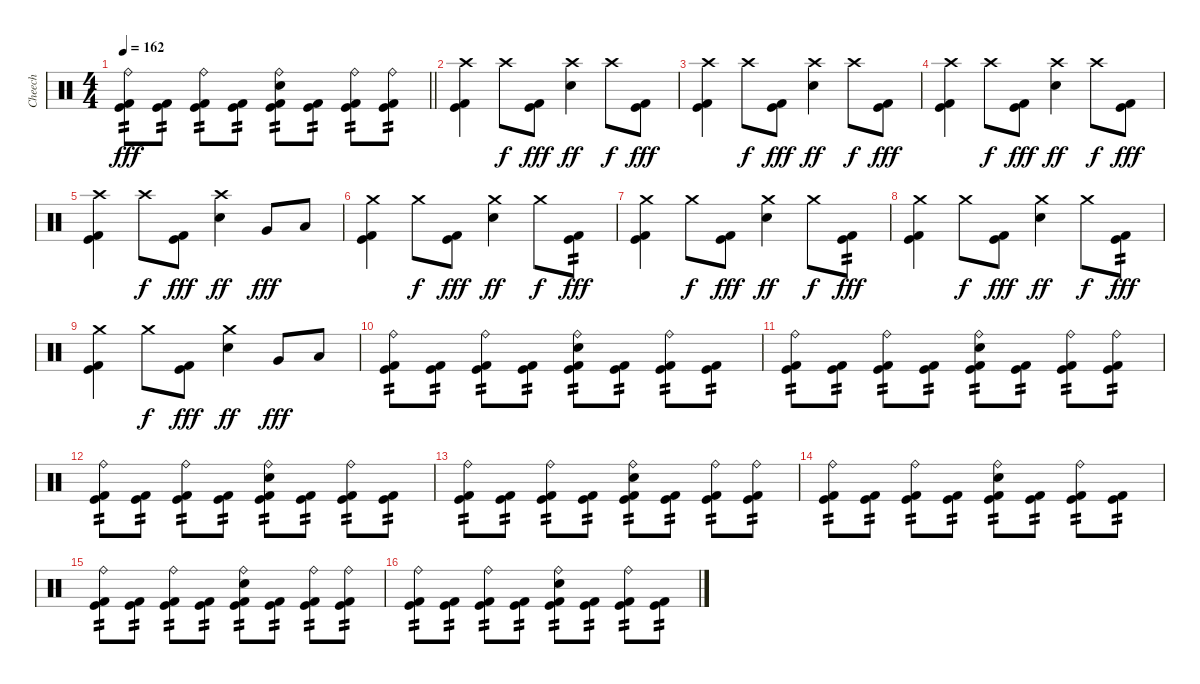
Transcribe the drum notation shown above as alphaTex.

\track ("Cheech" "Cheech") {instrument percussion}
\staff {score}
\articulation defaults
\ts (4 4)
\tempo 162
\clef neutral
\barLineRight lightlight
\ks c
("Ride (bell)" "Kick (hit) 2" "Kick (hit)").8{tp 2 dy fff} ("Kick (hit) 2" "Kick (hit)").8{tp 2} ("Ride (bell)" "Kick (hit) 2" "Kick (hit)").8{tp 2} ("Kick (hit) 2" "Kick (hit)").8{tp 2} ("Ride (bell)" "Electric Snare (hit)" "Kick (hit) 2" "Kick (hit)").8{tp 2} ("Kick (hit) 2" "Kick (hit)").8{tp 2} ("Ride (bell)" "Kick (hit) 2" "Kick (hit)").8{tp 2} ("Ride (bell)" "Kick (hit) 2" "Kick (hit)").8{tp 2} |
("Crash high (hit)" "Kick (hit) 2" "Kick (hit)").4 "Crash high (hit)".8{dy f} ("Kick (hit) 2" "Kick (hit)").8{dy fff} ("Crash high (hit)" "Electric Snare (hit)").4{dy ff} "Crash high (hit)".8{dy f} ("Kick (hit) 2" "Kick (hit)").8{dy fff} |
("Crash high (hit)" "Kick (hit) 2" "Kick (hit)").4 "Crash high (hit)".8{dy f} ("Kick (hit) 2" "Kick (hit)").8{dy fff} ("Crash high (hit)" "Electric Snare (hit)").4{dy ff} "Crash high (hit)".8{dy f} ("Kick (hit) 2" "Kick (hit)").8{dy fff} |
("Crash high (hit)" "Kick (hit) 2" "Kick (hit)").4 "Crash high (hit)".8{dy f} ("Kick (hit) 2" "Kick (hit)").8{dy fff} ("Crash high (hit)" "Electric Snare (hit)").4{dy ff} "Crash high (hit)".8{dy f} ("Kick (hit) 2" "Kick (hit)").8{dy fff} |
("Crash high (hit)" "Kick (hit) 2" "Kick (hit)").4 "Crash high (hit)".8{dy f} ("Kick (hit) 2" "Kick (hit)").8{dy fff} ("Crash high (hit)" "Electric Snare (hit)").4{dy ff} "Very Low Tom (hit)".8{dy fff} "Low Floor Tom (hit)".8 |
("Crash medium (hit)" "Kick (hit) 2" "Kick (hit)").4 "Crash medium (hit)".8{dy f} ("Kick (hit) 2" "Kick (hit)").8{dy fff} ("Crash medium (hit)" "Electric Snare (hit)").4{dy ff} "Crash medium (hit)".8{dy f} ("Kick (hit) 2" "Kick (hit)").8{tp 2 dy fff} |
("Crash medium (hit)" "Kick (hit) 2" "Kick (hit)").4 "Crash medium (hit)".8{dy f} ("Kick (hit) 2" "Kick (hit)").8{dy fff} ("Crash medium (hit)" "Electric Snare (hit)").4{dy ff} "Crash medium (hit)".8{dy f} ("Kick (hit) 2" "Kick (hit)").8{tp 2 dy fff} |
("Crash medium (hit)" "Kick (hit) 2" "Kick (hit)").4 "Crash medium (hit)".8{dy f} ("Kick (hit) 2" "Kick (hit)").8{dy fff} ("Crash medium (hit)" "Electric Snare (hit)").4{dy ff} "Crash medium (hit)".8{dy f} ("Kick (hit) 2" "Kick (hit)").8{tp 2 dy fff} |
("Crash medium (hit)" "Kick (hit) 2" "Kick (hit)").4 "Crash medium (hit)".8{dy f} ("Kick (hit) 2" "Kick (hit)").8{dy fff} ("Crash medium (hit)" "Electric Snare (hit)").4{dy ff} "Very Low Tom (hit)".8{dy fff} "Low Floor Tom (hit)".8 |
("Ride (bell)" "Kick (hit) 2" "Kick (hit)").8{tp 2} ("Kick (hit) 2" "Kick (hit)").8{tp 2} ("Ride (bell)" "Kick (hit) 2" "Kick (hit)").8{tp 2} ("Kick (hit) 2" "Kick (hit)").8{tp 2} ("Ride (bell)" "Electric Snare (hit)" "Kick (hit) 2" "Kick (hit)").8{tp 2} ("Kick (hit) 2" "Kick (hit)").8{tp 2} ("Ride (bell)" "Kick (hit) 2" "Kick (hit)").8{tp 2} ("Kick (hit) 2" "Kick (hit)").8{tp 2} |
("Ride (bell)" "Kick (hit) 2" "Kick (hit)").8{tp 2} ("Kick (hit) 2" "Kick (hit)").8{tp 2} ("Ride (bell)" "Kick (hit) 2" "Kick (hit)").8{tp 2} ("Kick (hit) 2" "Kick (hit)").8{tp 2} ("Ride (bell)" "Electric Snare (hit)" "Kick (hit) 2" "Kick (hit)").8{tp 2} ("Kick (hit) 2" "Kick (hit)").8{tp 2} ("Ride (bell)" "Kick (hit) 2" "Kick (hit)").8{tp 2} ("Ride (bell)" "Kick (hit) 2" "Kick (hit)").8{tp 2} |
("Ride (bell)" "Kick (hit) 2" "Kick (hit)").8{tp 2} ("Kick (hit) 2" "Kick (hit)").8{tp 2} ("Ride (bell)" "Kick (hit) 2" "Kick (hit)").8{tp 2} ("Kick (hit) 2" "Kick (hit)").8{tp 2} ("Ride (bell)" "Electric Snare (hit)" "Kick (hit) 2" "Kick (hit)").8{tp 2} ("Kick (hit) 2" "Kick (hit)").8{tp 2} ("Ride (bell)" "Kick (hit) 2" "Kick (hit)").8{tp 2} ("Kick (hit) 2" "Kick (hit)").8{tp 2} |
("Ride (bell)" "Kick (hit) 2" "Kick (hit)").8{tp 2} ("Kick (hit) 2" "Kick (hit)").8{tp 2} ("Ride (bell)" "Kick (hit) 2" "Kick (hit)").8{tp 2} ("Kick (hit) 2" "Kick (hit)").8{tp 2} ("Ride (bell)" "Electric Snare (hit)" "Kick (hit) 2" "Kick (hit)").8{tp 2} ("Kick (hit) 2" "Kick (hit)").8{tp 2} ("Ride (bell)" "Kick (hit) 2" "Kick (hit)").8{tp 2} ("Ride (bell)" "Kick (hit) 2" "Kick (hit)").8{tp 2} |
("Ride (bell)" "Kick (hit) 2" "Kick (hit)").8{tp 2} ("Kick (hit) 2" "Kick (hit)").8{tp 2} ("Ride (bell)" "Kick (hit) 2" "Kick (hit)").8{tp 2} ("Kick (hit) 2" "Kick (hit)").8{tp 2} ("Ride (bell)" "Electric Snare (hit)" "Kick (hit) 2" "Kick (hit)").8{tp 2} ("Kick (hit) 2" "Kick (hit)").8{tp 2} ("Ride (bell)" "Kick (hit) 2" "Kick (hit)").8{tp 2} ("Kick (hit) 2" "Kick (hit)").8{tp 2} |
("Ride (bell)" "Kick (hit) 2" "Kick (hit)").8{tp 2} ("Kick (hit) 2" "Kick (hit)").8{tp 2} ("Ride (bell)" "Kick (hit) 2" "Kick (hit)").8{tp 2} ("Kick (hit) 2" "Kick (hit)").8{tp 2} ("Ride (bell)" "Electric Snare (hit)" "Kick (hit) 2" "Kick (hit)").8{tp 2} ("Kick (hit) 2" "Kick (hit)").8{tp 2} ("Ride (bell)" "Kick (hit) 2" "Kick (hit)").8{tp 2} ("Ride (bell)" "Kick (hit) 2" "Kick (hit)").8{tp 2} |
("Ride (bell)" "Kick (hit) 2" "Kick (hit)").8{tp 2} ("Kick (hit) 2" "Kick (hit)").8{tp 2} ("Ride (bell)" "Kick (hit) 2" "Kick (hit)").8{tp 2} ("Kick (hit) 2" "Kick (hit)").8{tp 2} ("Ride (bell)" "Electric Snare (hit)" "Kick (hit) 2" "Kick (hit)").8{tp 2} ("Kick (hit) 2" "Kick (hit)").8{tp 2} ("Ride (bell)" "Kick (hit) 2" "Kick (hit)").8{tp 2} ("Kick (hit) 2" "Kick (hit)").8{tp 2}
